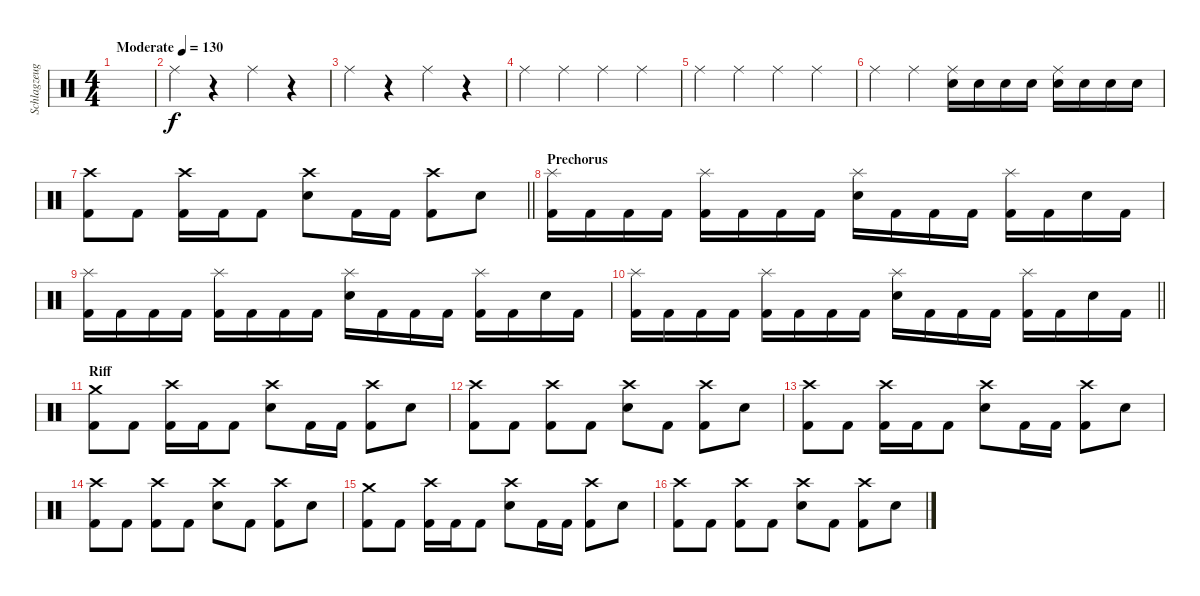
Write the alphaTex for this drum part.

\track ("Schlagzeug" "Schlagzeug") {instrument percussion}
\staff {score}
\articulation defaults
\ts (4 4)
\tempo (130 "Moderate")
\clef neutral
\ks c
|
"Ride (middle)".4 r.4 "Ride (middle)".4 r.4 |
"Ride (middle)".4 r.4 "Ride (middle)".4 r.4 |
"Ride (middle)".4 "Ride (middle)".4 "Ride (middle)".4 "Ride (middle)".4 |
"Ride (middle)".4 "Ride (middle)".4 "Ride (middle)".4 "Ride (middle)".4 |
"Ride (middle)".4 "Ride (middle)".4 ("Ride (middle)" "Snare (hit) 2").16 "Snare (hit) 2".16 "Snare (hit) 2".16 "Snare (hit) 2".16 ("Ride (middle)" "Snare (hit) 2").16 "Snare (hit) 2".16 "Snare (hit) 2".16 "Snare (hit) 2".16 |
\barLineRight lightlight
("Crash high (hit)" "Kick (hit) 2").8 "Kick (hit) 2".8 ("Crash high (hit)" "Kick (hit) 2").16 "Kick (hit) 2".16 "Kick (hit) 2".8 ("Crash high (hit)" "Electric Snare (hit)").8 "Kick (hit) 2".16 "Kick (hit) 2".16 ("Crash high (hit)" "Kick (hit) 2").8 "Electric Snare (hit)".8 |
\section ("" "Prechorus")
("Splash (hit)" "Kick (hit) 2").16 "Kick (hit) 2".16 "Kick (hit) 2".16 "Kick (hit) 2".16 ("Splash (hit)" "Kick (hit) 2").16 "Kick (hit) 2".16 "Kick (hit) 2".16 "Kick (hit) 2".16 ("Splash (hit)" "Electric Snare (hit)").16 "Kick (hit) 2".16 "Kick (hit) 2".16 "Kick (hit) 2".16 ("Splash (hit)" "Kick (hit) 2").16 "Kick (hit) 2".16 "Electric Snare (hit)".16 "Kick (hit) 2".16 |
("Splash (hit)" "Kick (hit) 2").16 "Kick (hit) 2".16 "Kick (hit) 2".16 "Kick (hit) 2".16 ("Splash (hit)" "Kick (hit) 2").16 "Kick (hit) 2".16 "Kick (hit) 2".16 "Kick (hit) 2".16 ("Splash (hit)" "Electric Snare (hit)").16 "Kick (hit) 2".16 "Kick (hit) 2".16 "Kick (hit) 2".16 ("Splash (hit)" "Kick (hit) 2").16 "Kick (hit) 2".16 "Electric Snare (hit)".16 "Kick (hit) 2".16 |
\barLineRight lightlight
("Splash (hit)" "Kick (hit) 2").16 "Kick (hit) 2".16 "Kick (hit) 2".16 "Kick (hit) 2".16 ("Splash (hit)" "Kick (hit) 2").16 "Kick (hit) 2".16 "Kick (hit) 2".16 "Kick (hit) 2".16 ("Splash (hit)" "Electric Snare (hit)").16 "Kick (hit) 2".16 "Kick (hit) 2".16 "Kick (hit) 2".16 ("Splash (hit)" "Kick (hit) 2").16 "Kick (hit) 2".16 "Electric Snare (hit)".16 "Kick (hit) 2".16 |
\section ("" "Riff")
("Crash medium (hit)" "Kick (hit) 2").8 "Kick (hit) 2".8 ("Crash high (hit)" "Kick (hit) 2").16 "Kick (hit) 2".16 "Kick (hit) 2".8 ("Crash high (hit)" "Electric Snare (hit)").8 "Kick (hit) 2".16 "Kick (hit) 2".16 ("Crash high (hit)" "Kick (hit) 2").8 "Electric Snare (hit)".8 |
("Crash high (hit)" "Kick (hit) 2").8 "Kick (hit) 2".8 ("Crash high (hit)" "Kick (hit) 2").8 "Kick (hit) 2".8 ("Crash high (hit)" "Electric Snare (hit)").8 "Kick (hit) 2".8 ("Crash high (hit)" "Kick (hit) 2").8 "Electric Snare (hit)".8 |
("Crash high (hit)" "Kick (hit) 2").8 "Kick (hit) 2".8 ("Crash high (hit)" "Kick (hit) 2").16 "Kick (hit) 2".16 "Kick (hit) 2".8 ("Crash high (hit)" "Electric Snare (hit)").8 "Kick (hit) 2".16 "Kick (hit) 2".16 ("Crash high (hit)" "Kick (hit) 2").8 "Electric Snare (hit)".8 |
("Crash high (hit)" "Kick (hit) 2").8 "Kick (hit) 2".8 ("Crash high (hit)" "Kick (hit) 2").8 "Kick (hit) 2".8 ("Crash high (hit)" "Electric Snare (hit)").8 "Kick (hit) 2".8 ("Crash high (hit)" "Kick (hit) 2").8 "Electric Snare (hit)".8 |
("Crash medium (hit)" "Kick (hit) 2").8 "Kick (hit) 2".8 ("Crash high (hit)" "Kick (hit) 2").16 "Kick (hit) 2".16 "Kick (hit) 2".8 ("Crash high (hit)" "Electric Snare (hit)").8 "Kick (hit) 2".16 "Kick (hit) 2".16 ("Crash high (hit)" "Kick (hit) 2").8 "Electric Snare (hit)".8 |
("Crash high (hit)" "Kick (hit) 2").8 "Kick (hit) 2".8 ("Crash high (hit)" "Kick (hit) 2").8 "Kick (hit) 2".8 ("Crash high (hit)" "Electric Snare (hit)").8 "Kick (hit) 2".8 ("Crash high (hit)" "Kick (hit) 2").8 "Electric Snare (hit)".8
